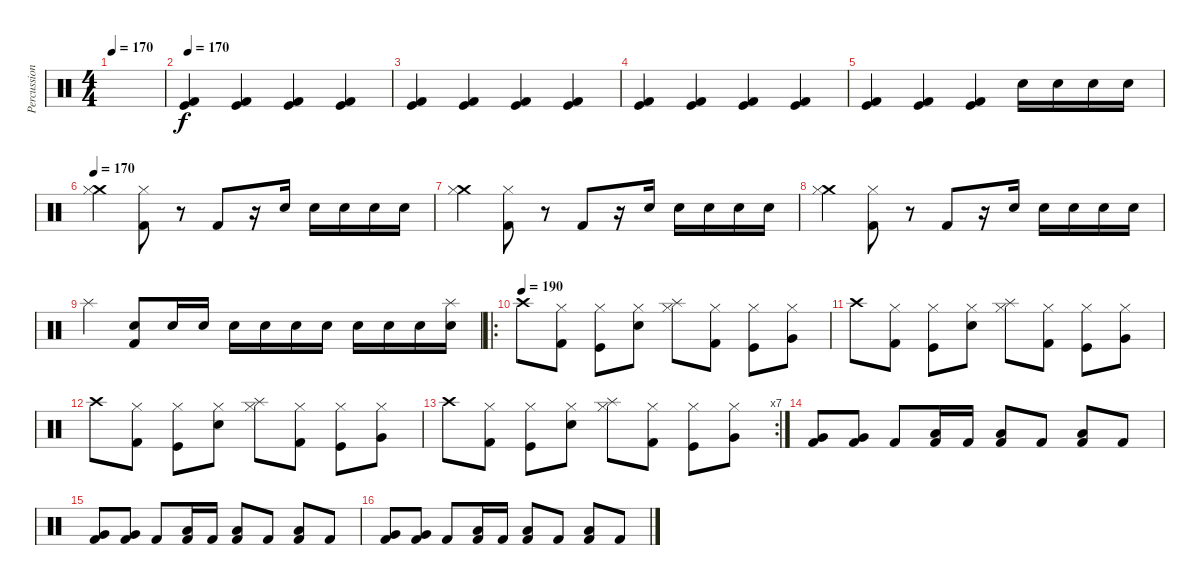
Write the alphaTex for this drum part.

\track ("Percussions" "Percussion") {instrument percussion}
\staff {score}
\articulation defaults
\ts (4 4)
\tempo 170
\clef neutral
\ks c
|
\tempo 170
("Kick (hit) 2" "Kick (hit)").4 ("Kick (hit) 2" "Kick (hit)").4 ("Kick (hit) 2" "Kick (hit)").4 ("Kick (hit) 2" "Kick (hit)").4 |
("Kick (hit) 2" "Kick (hit)").4 ("Kick (hit) 2" "Kick (hit)").4 ("Kick (hit) 2" "Kick (hit)").4 ("Kick (hit) 2" "Kick (hit)").4 |
("Kick (hit) 2" "Kick (hit)").4 ("Kick (hit) 2" "Kick (hit)").4 ("Kick (hit) 2" "Kick (hit)").4 ("Kick (hit) 2" "Kick (hit)").4 |
("Kick (hit) 2" "Kick (hit)").4 ("Kick (hit) 2" "Kick (hit)").4 ("Kick (hit) 2" "Kick (hit)").4 "Snare (hit) 2".16 "Snare (hit) 2".16 "Snare (hit) 2".16 "Snare (hit) 2".16 |
\tempo 170
("Crash medium (hit)" "Hi-Hat (closed)").4 ("Hi-Hat (closed)" "Kick (hit) 2").8 r.8 "Kick (hit) 2".8 r.16 "Snare (hit) 2".16 "Snare (hit) 2".16 "Snare (hit) 2".16 "Snare (hit) 2".16 "Snare (hit) 2".16 |
("Crash medium (hit)" "Hi-Hat (closed)").4 ("Hi-Hat (closed)" "Kick (hit) 2").8 r.8 "Kick (hit) 2".8 r.16 "Snare (hit) 2".16 "Snare (hit) 2".16 "Snare (hit) 2".16 "Snare (hit) 2".16 "Snare (hit) 2".16 |
("Crash medium (hit)" "Hi-Hat (closed)").4 ("Hi-Hat (closed)" "Kick (hit) 2").8 r.8 "Kick (hit) 2".8 r.16 "Snare (hit) 2".16 "Snare (hit) 2".16 "Snare (hit) 2".16 "Snare (hit) 2".16 "Snare (hit) 2".16 |
"Splash (hit)".4 ("Kick (hit) 2" "Snare (hit) 2").8 "Snare (hit) 2".16 "Snare (hit) 2".16 "Snare (hit) 2".16 "Snare (hit) 2".16 "Snare (hit) 2".16 "Snare (hit) 2".16 "Snare (hit) 2".16 "Snare (hit) 2".16 "Snare (hit) 2".16 ("Splash (hit)" "Snare (hit) 2").16 |
\ro
\tempo (190)
"Crash high (hit)".8 ("Hi-Hat (closed)" "Kick (hit) 2").8 ("Hi-Hat (closed)" "Kick (hit)").8 ("Hi-Hat (closed)" "Snare (hit) 2").8 ("Hi-Hat (closed)" "Splash (hit)").8 ("Hi-Hat (closed)" "Kick (hit) 2").8 ("Hi-Hat (closed)" "Kick (hit)").8 ("Hi-Hat (closed)" "Very Low Tom (hit)").8 |
"Crash high (hit)".8 ("Hi-Hat (closed)" "Kick (hit) 2").8 ("Hi-Hat (closed)" "Kick (hit)").8 ("Hi-Hat (closed)" "Snare (hit) 2").8 ("Hi-Hat (closed)" "Splash (hit)").8 ("Hi-Hat (closed)" "Kick (hit) 2").8 ("Hi-Hat (closed)" "Kick (hit)").8 ("Hi-Hat (closed)" "Very Low Tom (hit)").8 |
"Crash high (hit)".8 ("Hi-Hat (closed)" "Kick (hit) 2").8 ("Hi-Hat (closed)" "Kick (hit)").8 ("Hi-Hat (closed)" "Snare (hit) 2").8 ("Hi-Hat (closed)" "Splash (hit)").8 ("Hi-Hat (closed)" "Kick (hit) 2").8 ("Hi-Hat (closed)" "Kick (hit)").8 ("Hi-Hat (closed)" "Very Low Tom (hit)").8 |
\rc 7 "Crash high (hit)".8
("Hi-Hat (closed)" "Kick (hit) 2").8 ("Hi-Hat (closed)" "Kick (hit)").8 ("Hi-Hat (closed)" "Snare (hit) 2").8 ("Hi-Hat (closed)" "Splash (hit)").8 ("Hi-Hat (closed)" "Kick (hit) 2").8 ("Hi-Hat (closed)" "Kick (hit)").8 ("Hi-Hat (closed)" "Very Low Tom (hit)").8 |
("Kick (hit) 2" "Very Low Tom (hit)").8 ("Kick (hit) 2" "Very Low Tom (hit)").8 "Kick (hit) 2".8 ("Low Tom (hit)" "Kick (hit) 2").16 "Kick (hit) 2".16 ("Low Tom (hit)" "Kick (hit) 2").8 "Kick (hit) 2".8 ("Low Tom (hit)" "Kick (hit) 2").8 "Kick (hit) 2".8 |
("Kick (hit) 2" "Very Low Tom (hit)").8 ("Kick (hit) 2" "Very Low Tom (hit)").8 "Kick (hit) 2".8 ("Low Tom (hit)" "Kick (hit) 2").16 "Kick (hit) 2".16 ("Low Tom (hit)" "Kick (hit) 2").8 "Kick (hit) 2".8 ("Low Tom (hit)" "Kick (hit) 2").8 "Kick (hit) 2".8 |
("Kick (hit) 2" "Very Low Tom (hit)").8 ("Kick (hit) 2" "Very Low Tom (hit)").8 "Kick (hit) 2".8 ("Low Tom (hit)" "Kick (hit) 2").16 "Kick (hit) 2".16 ("Low Tom (hit)" "Kick (hit) 2").8 "Kick (hit) 2".8 ("Low Tom (hit)" "Kick (hit) 2").8 "Kick (hit) 2".8
